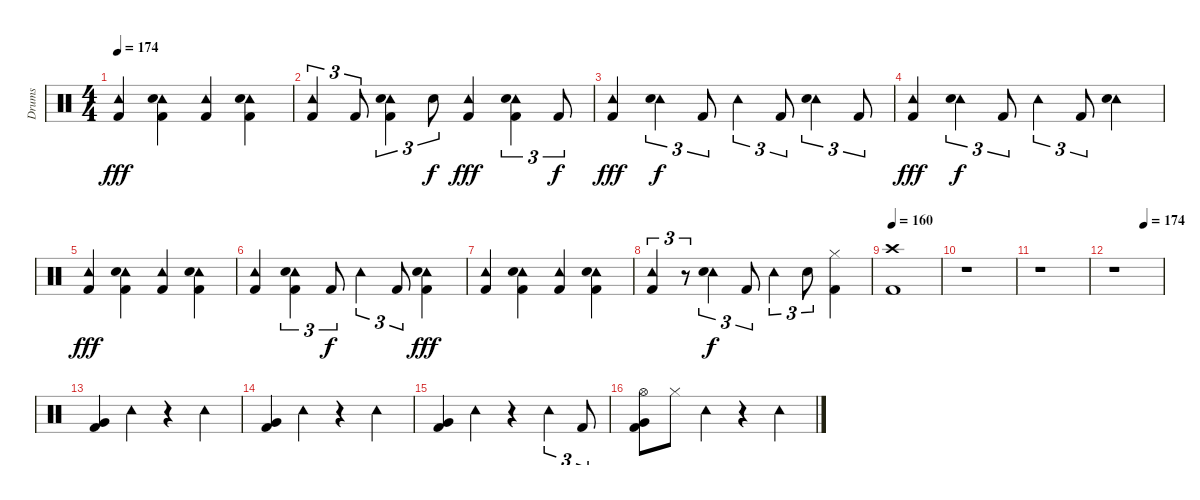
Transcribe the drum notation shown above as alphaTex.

\track ("Drums" "Drums") {instrument percussion}
\staff {score}
\articulation defaults
\ts (4 4)
\tempo 174
\clef neutral
\ks c
("Tambourine (hit)" "Kick (hit) 2").4{dy fff} ("Tambourine (hit)" "Electric Snare (hit)" "Kick (hit) 2").4 ("Tambourine (hit)" "Kick (hit) 2").4 ("Tambourine (hit)" "Electric Snare (hit)" "Kick (hit) 2").4 |
("Tambourine (hit)" "Kick (hit) 2").4{tu (3 2)} "Kick (hit) 2".8{tu (3 2)} ("Tambourine (hit)" "Electric Snare (hit)" "Kick (hit) 2").4{tu (3 2)} "Electric Snare (hit)".8{tu (3 2) dy f} ("Tambourine (hit)" "Kick (hit) 2").4{dy fff} ("Tambourine (hit)" "Electric Snare (hit)" "Kick (hit) 2").4{tu (3 2)} "Kick (hit) 2".8{tu (3 2) dy f} |
("Tambourine (hit)" "Kick (hit) 2").4{dy fff} ("Tambourine (hit)" "Electric Snare (hit)").4{tu (3 2) dy f} "Kick (hit) 2".8{tu (3 2)} "Tambourine (hit)".4{tu (3 2)} "Kick (hit) 2".8{tu (3 2)} ("Tambourine (hit)" "Electric Snare (hit)").4{tu (3 2)} "Kick (hit) 2".8{tu (3 2)} |
("Tambourine (hit)" "Kick (hit) 2").4{dy fff} ("Tambourine (hit)" "Electric Snare (hit)").4{tu (3 2) dy f} "Kick (hit) 2".8{tu (3 2)} "Tambourine (hit)".4{tu (3 2)} "Kick (hit) 2".8{tu (3 2)} ("Tambourine (hit)" "Electric Snare (hit)").4 |
("Tambourine (hit)" "Kick (hit) 2").4{dy fff} ("Tambourine (hit)" "Electric Snare (hit)" "Kick (hit) 2").4 ("Tambourine (hit)" "Kick (hit) 2").4 ("Tambourine (hit)" "Electric Snare (hit)" "Kick (hit) 2").4 |
("Tambourine (hit)" "Kick (hit) 2").4 ("Tambourine (hit)" "Electric Snare (hit)" "Kick (hit) 2").4{tu (3 2)} "Kick (hit) 2".8{tu (3 2) dy f} "Tambourine (hit)".4{tu (3 2)} "Kick (hit) 2".8{tu (3 2)} ("Tambourine (hit)" "Electric Snare (hit)" "Kick (hit) 2").4{dy fff} |
("Tambourine (hit)" "Kick (hit) 2").4 ("Tambourine (hit)" "Electric Snare (hit)" "Kick (hit) 2").4 ("Tambourine (hit)" "Kick (hit) 2").4 ("Tambourine (hit)" "Electric Snare (hit)" "Kick (hit) 2").4 |
("Tambourine (hit)" "Kick (hit) 2").4{tu (3 2)} r.8{tu (3 2)} ("Tambourine (hit)" "Electric Snare (hit)").4{tu (3 2) dy f} "Kick (hit) 2".8{tu (3 2)} "Tambourine (hit)".4{tu (3 2)} "Electric Snare (hit)".8{tu (3 2)} ("Hi-Hat (closed)" "Kick (hit) 2").4 |
\tempo 160
("Crash high (hit)" "Kick (hit) 2").1 |
r.1 |
r.1 |
\tempo (174 0.625)
r.1 |
("Very Low Tom (hit)" "Kick (hit) 2").4 "Tambourine (hit)".4 r.4 "Tambourine (hit)".4 |
("Very Low Tom (hit)" "Kick (hit) 2").4 "Tambourine (hit)".4 r.4 "Tambourine (hit)".4 |
("Very Low Tom (hit)" "Kick (hit) 2").4 "Tambourine (hit)".4 r.4 "Tambourine (hit)".4{tu (3 2)} "Kick (hit) 2".8{tu (3 2)} |
("Hi-Hat (open)" "Very Low Tom (hit)" "Kick (hit) 2").8 "Hi-Hat (closed)".8 "Tambourine (hit)".4 r.4 "Tambourine (hit)".4
